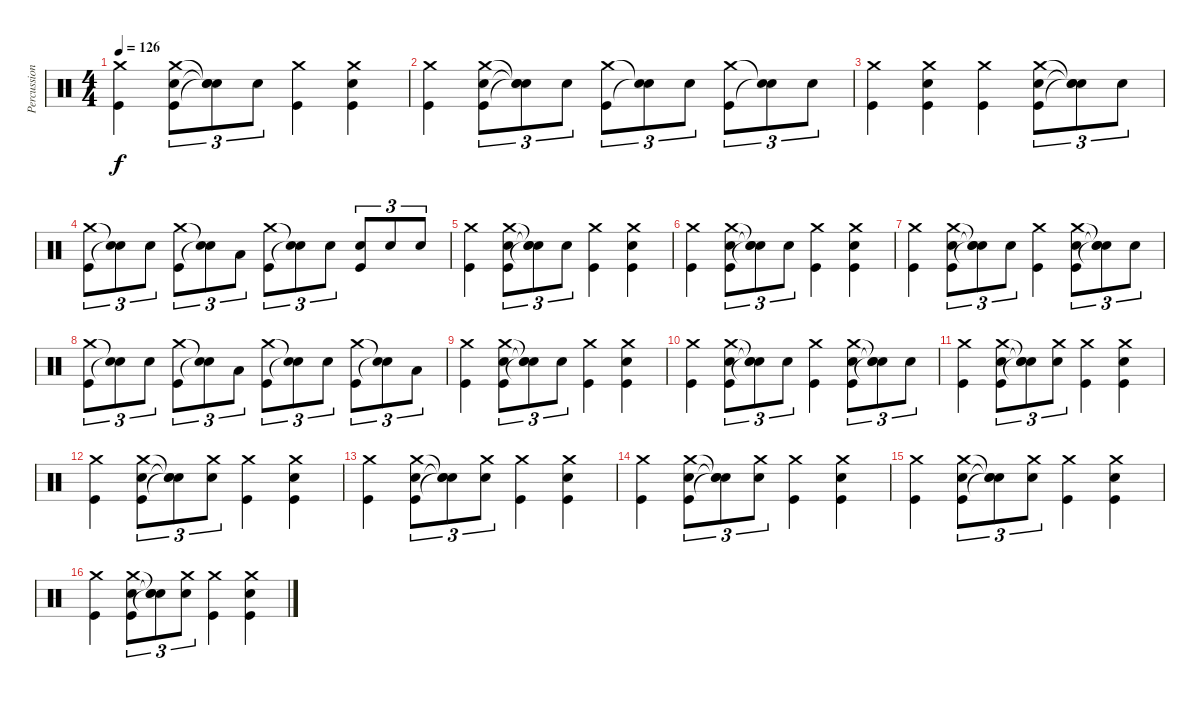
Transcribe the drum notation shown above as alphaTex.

\track ("Percussion" "Percussion") {instrument percussion}
\staff {score}
\articulation defaults
\ts (4 4)
\tempo 126
\clef neutral
\ks c
("Crash medium (hit)" "Kick (hit)").4{dy f} ("Crash medium (hit)" "Snare (hit) 2" "Kick (hit)").8{tu (3 2)} ("Snare (hit)"{t} "Snare (hit)"{t} "Snare (hit)"{t}).8{tu (3 2)} "Snare (hit) 2".8{tu (3 2)} ("Crash medium (hit)" "Kick (hit)").4 ("Crash medium (hit)" "Snare (hit) 2" "Kick (hit)").4 |
("Crash medium (hit)" "Kick (hit)").4 ("Crash medium (hit)" "Snare (hit) 2" "Kick (hit)").8{tu (3 2)} ("Snare (hit)"{t} "Snare (hit)"{t} "Snare (hit)"{t}).8{tu (3 2)} "Snare (hit) 2".8{tu (3 2)} ("Crash medium (hit)" "Kick (hit)").8{tu (3 2)} ("Snare (hit)"{t} "Snare (hit)"{t}).8{tu (3 2)} "Snare (hit) 2".8{tu (3 2)} ("Crash medium (hit)" "Kick (hit)").8{tu (3 2)} ("Snare (hit)"{t} "Snare (hit)"{t}).8{tu (3 2)} "Snare (hit) 2".8{tu (3 2)} |
("Crash medium (hit)" "Kick (hit)").4 ("Crash medium (hit)" "Snare (hit) 2" "Kick (hit)").4 ("Crash medium (hit)" "Kick (hit)").4 ("Crash medium (hit)" "Snare (hit) 2" "Kick (hit)").8{tu (3 2)} ("Snare (hit)"{t} "Snare (hit)"{t} "Snare (hit)"{t}).8{tu (3 2)} "Snare (hit) 2".8{tu (3 2)} |
("Crash medium (hit)" "Kick (hit)").8{tu (3 2)} ("Snare (hit)"{t} "Snare (hit)"{t}).8{tu (3 2)} "Snare (hit) 2".8{tu (3 2)} ("Crash medium (hit)" "Kick (hit)").8{tu (3 2)} ("Snare (hit)"{t} "Snare (hit)"{t}).8{tu (3 2)} "Low Tom (hit)".8{tu (3 2)} ("Crash medium (hit)" "Kick (hit)").8{tu (3 2)} ("Snare (hit)"{t} "Snare (hit)"{t}).8{tu (3 2)} "Snare (hit) 2".8{tu (3 2)} ("Snare (hit) 2" "Kick (hit)").8{tu (3 2)} "Snare (hit) 2".8{tu (3 2)} "Snare (hit) 2".8{tu (3 2)} |
("Crash medium (hit)" "Kick (hit)").4 ("Crash medium (hit)" "Snare (hit) 2" "Kick (hit)").8{tu (3 2)} ("Snare (hit)"{t} "Snare (hit)"{t} "Snare (hit)"{t}).8{tu (3 2)} "Snare (hit) 2".8{tu (3 2)} ("Crash medium (hit)" "Kick (hit)").4 ("Crash medium (hit)" "Snare (hit) 2" "Kick (hit)").4 |
("Crash medium (hit)" "Kick (hit)").4 ("Crash medium (hit)" "Snare (hit) 2" "Kick (hit)").8{tu (3 2)} ("Snare (hit)"{t} "Snare (hit)"{t} "Snare (hit)"{t}).8{tu (3 2)} "Snare (hit) 2".8{tu (3 2)} ("Crash medium (hit)" "Kick (hit)").4 ("Crash medium (hit)" "Snare (hit) 2" "Kick (hit)").4 |
("Crash medium (hit)" "Kick (hit)").4 ("Crash medium (hit)" "Snare (hit) 2" "Kick (hit)").8{tu (3 2)} ("Snare (hit)"{t} "Snare (hit)"{t} "Snare (hit)"{t}).8{tu (3 2)} "Snare (hit) 2".8{tu (3 2)} ("Crash medium (hit)" "Kick (hit)").4 ("Crash medium (hit)" "Snare (hit) 2" "Kick (hit)").8{tu (3 2)} ("Snare (hit)"{t} "Snare (hit)"{t} "Snare (hit)"{t}).8{tu (3 2)} "Snare (hit) 2".8{tu (3 2)} |
("Crash medium (hit)" "Kick (hit)").8{tu (3 2)} ("Snare (hit)"{t} "Snare (hit)"{t}).8{tu (3 2)} "Snare (hit) 2".8{tu (3 2)} ("Crash medium (hit)" "Kick (hit)").8{tu (3 2)} ("Snare (hit)"{t} "Snare (hit)"{t}).8{tu (3 2)} "Low Tom (hit)".8{tu (3 2)} ("Crash medium (hit)" "Kick (hit)").8{tu (3 2)} ("Snare (hit)"{t} "Snare (hit)"{t}).8{tu (3 2)} "Snare (hit) 2".8{tu (3 2)} ("Crash medium (hit)" "Kick (hit)").8{tu (3 2)} ("Snare (hit)"{t} "Snare (hit)"{t}).8{tu (3 2)} "Low Tom (hit)".8{tu (3 2)} |
("Crash medium (hit)" "Kick (hit)").4 ("Crash medium (hit)" "Snare (hit) 2" "Kick (hit)").8{tu (3 2)} ("Snare (hit)"{t} "Snare (hit)"{t} "Snare (hit)"{t}).8{tu (3 2)} "Snare (hit) 2".8{tu (3 2)} ("Crash medium (hit)" "Kick (hit)").4 ("Crash medium (hit)" "Snare (hit) 2" "Kick (hit)").4 |
("Crash medium (hit)" "Kick (hit)").4 ("Crash medium (hit)" "Snare (hit) 2" "Kick (hit)").8{tu (3 2)} ("Snare (hit)"{t} "Snare (hit)"{t} "Snare (hit)"{t}).8{tu (3 2)} "Snare (hit) 2".8{tu (3 2)} ("Crash medium (hit)" "Kick (hit)").4 ("Crash medium (hit)" "Snare (hit) 2" "Kick (hit)").8{tu (3 2)} ("Snare (hit)"{t} "Snare (hit)"{t} "Snare (hit)"{t}).8{tu (3 2)} "Snare (hit) 2".8{tu (3 2)} |
("Crash medium (hit)" "Kick (hit)").4 ("Crash medium (hit)" "Snare (hit) 2" "Kick (hit)").8{tu (3 2)} ("Snare (hit)"{t} "Snare (hit)"{t} "Snare (hit)"{t}).8{tu (3 2)} ("Crash medium (hit)" "Snare (hit) 2").8{tu (3 2)} ("Crash medium (hit)" "Kick (hit)").4 ("Crash medium (hit)" "Snare (hit) 2" "Kick (hit)").4 |
("Crash medium (hit)" "Kick (hit)").4 ("Crash medium (hit)" "Snare (hit) 2" "Kick (hit)").8{tu (3 2)} ("Snare (hit)"{t} "Snare (hit)"{t} "Snare (hit)"{t}).8{tu (3 2)} ("Crash medium (hit)" "Snare (hit) 2").8{tu (3 2)} ("Crash medium (hit)" "Kick (hit)").4 ("Crash medium (hit)" "Snare (hit) 2" "Kick (hit)").4 |
("Crash medium (hit)" "Kick (hit)").4 ("Crash medium (hit)" "Snare (hit) 2" "Kick (hit)").8{tu (3 2)} ("Snare (hit)"{t} "Snare (hit)"{t} "Snare (hit)"{t}).8{tu (3 2)} ("Crash medium (hit)" "Snare (hit) 2").8{tu (3 2)} ("Crash medium (hit)" "Kick (hit)").4 ("Crash medium (hit)" "Snare (hit) 2" "Kick (hit)").4 |
("Crash medium (hit)" "Kick (hit)").4 ("Crash medium (hit)" "Snare (hit) 2" "Kick (hit)").8{tu (3 2)} ("Snare (hit)"{t} "Snare (hit)"{t} "Snare (hit)"{t}).8{tu (3 2)} ("Crash medium (hit)" "Snare (hit) 2").8{tu (3 2)} ("Crash medium (hit)" "Kick (hit)").4 ("Crash medium (hit)" "Snare (hit) 2" "Kick (hit)").4 |
("Crash medium (hit)" "Kick (hit)").4 ("Crash medium (hit)" "Snare (hit) 2" "Kick (hit)").8{tu (3 2)} ("Snare (hit)"{t} "Snare (hit)"{t} "Snare (hit)"{t}).8{tu (3 2)} ("Crash medium (hit)" "Snare (hit) 2").8{tu (3 2)} ("Crash medium (hit)" "Kick (hit)").4 ("Crash medium (hit)" "Snare (hit) 2" "Kick (hit)").4 |
("Crash medium (hit)" "Kick (hit)").4 ("Crash medium (hit)" "Snare (hit) 2" "Kick (hit)").8{tu (3 2)} ("Snare (hit)"{t} "Snare (hit)"{t} "Snare (hit)"{t}).8{tu (3 2)} ("Crash medium (hit)" "Snare (hit) 2").8{tu (3 2)} ("Crash medium (hit)" "Kick (hit)").4 ("Crash medium (hit)" "Snare (hit) 2" "Kick (hit)").4
